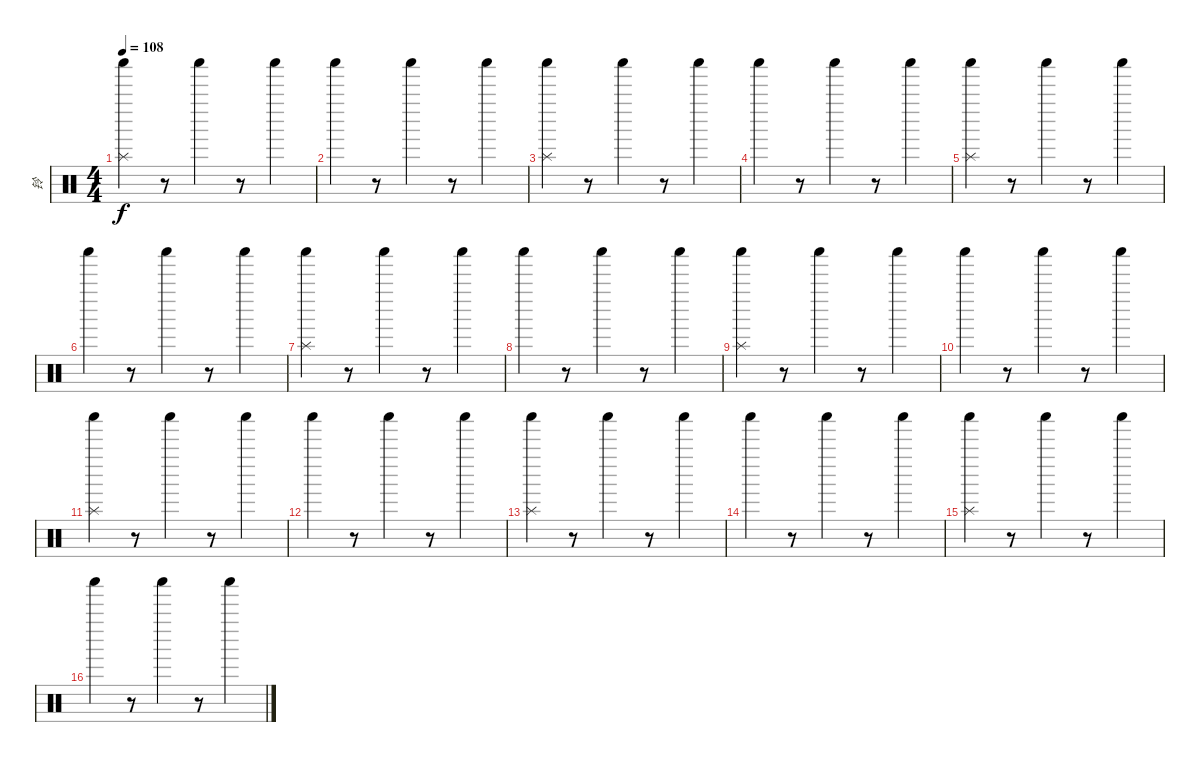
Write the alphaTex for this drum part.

\track ("铃" "铃") {instrument percussion}
\staff {score}
\articulation defaults
\ts (4 4)
\tempo 108
\clef neutral
\ks c
("Shaker (hit)" "Splash (hit)").4{dy f} r.8 "Shaker (hit)".4 r.8 "Shaker (hit)".4 |
"Shaker (hit)".4 r.8 "Shaker (hit)".4 r.8 "Shaker (hit)".4 |
("Shaker (hit)" "Splash (hit)").4 r.8 "Shaker (hit)".4 r.8 "Shaker (hit)".4 |
"Shaker (hit)".4 r.8 "Shaker (hit)".4 r.8 "Shaker (hit)".4 |
("Shaker (hit)" "Splash (hit)").4 r.8 "Shaker (hit)".4 r.8 "Shaker (hit)".4 |
"Shaker (hit)".4 r.8 "Shaker (hit)".4 r.8 "Shaker (hit)".4 |
("Shaker (hit)" "Splash (hit)").4 r.8 "Shaker (hit)".4 r.8 "Shaker (hit)".4 |
"Shaker (hit)".4 r.8 "Shaker (hit)".4 r.8 "Shaker (hit)".4 |
("Shaker (hit)" "Splash (hit)").4 r.8 "Shaker (hit)".4 r.8 "Shaker (hit)".4 |
"Shaker (hit)".4 r.8 "Shaker (hit)".4 r.8 "Shaker (hit)".4 |
("Shaker (hit)" "Splash (hit)").4 r.8 "Shaker (hit)".4 r.8 "Shaker (hit)".4 |
"Shaker (hit)".4 r.8 "Shaker (hit)".4 r.8 "Shaker (hit)".4 |
("Shaker (hit)" "Splash (hit)").4 r.8 "Shaker (hit)".4 r.8 "Shaker (hit)".4 |
"Shaker (hit)".4 r.8 "Shaker (hit)".4 r.8 "Shaker (hit)".4 |
("Shaker (hit)" "Splash (hit)").4 r.8 "Shaker (hit)".4 r.8 "Shaker (hit)".4 |
"Shaker (hit)".4 r.8 "Shaker (hit)".4 r.8 "Shaker (hit)".4
